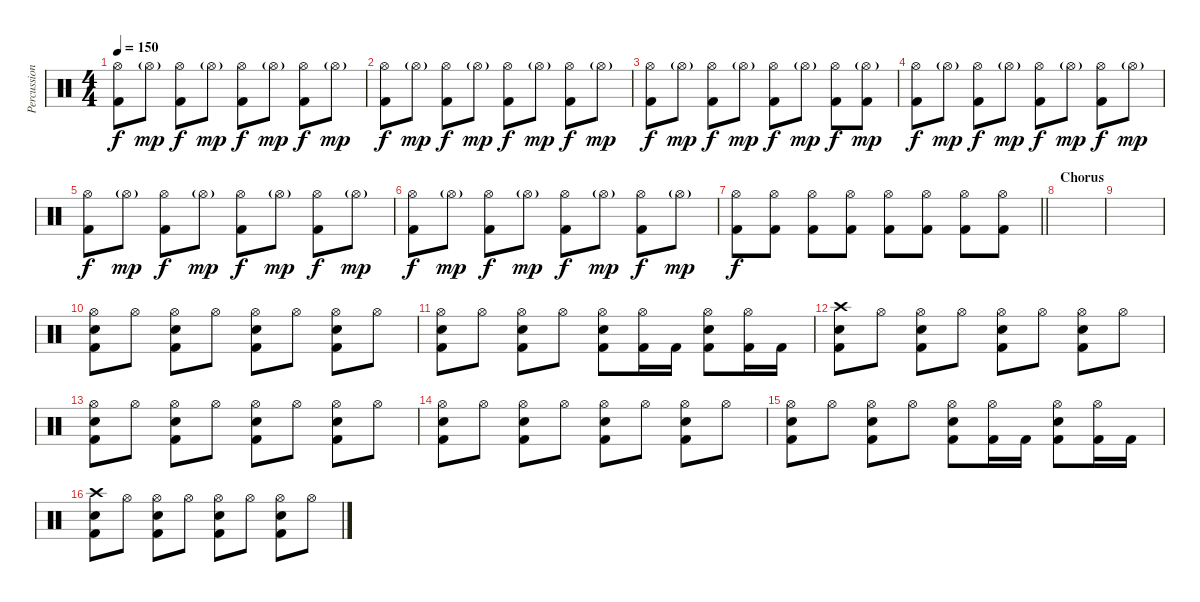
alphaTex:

\track ("Percussion" "Percussion") {instrument percussion}
\staff {score}
\articulation defaults
\ts (4 4)
\tempo 150
\clef neutral
\ks c
("Hi-Hat (open)" "Kick (hit) 2").8{dy f} "Hi-Hat (open)"{g}.8{dy mp} ("Hi-Hat (open)" "Kick (hit) 2").8{dy f} "Hi-Hat (open)"{g}.8{dy mp} ("Hi-Hat (open)" "Kick (hit) 2").8{dy f} "Hi-Hat (open)"{g}.8{dy mp} ("Hi-Hat (open)" "Kick (hit) 2").8{dy f} "Hi-Hat (open)"{g}.8{dy mp} |
("Hi-Hat (open)" "Kick (hit) 2").8{dy f} "Hi-Hat (open)"{g}.8{dy mp} ("Hi-Hat (open)" "Kick (hit) 2").8{dy f} "Hi-Hat (open)"{g}.8{dy mp} ("Hi-Hat (open)" "Kick (hit) 2").8{dy f} "Hi-Hat (open)"{g}.8{dy mp} ("Hi-Hat (open)" "Kick (hit) 2").8{dy f} "Hi-Hat (open)"{g}.8{dy mp} |
("Hi-Hat (open)" "Kick (hit) 2").8{dy f} "Hi-Hat (open)"{g}.8{dy mp} ("Hi-Hat (open)" "Kick (hit) 2").8{dy f} "Hi-Hat (open)"{g}.8{dy mp} ("Hi-Hat (open)" "Kick (hit) 2").8{dy f} "Hi-Hat (open)"{g}.8{dy mp} ("Hi-Hat (open)" "Kick (hit) 2").8{dy f} ("Hi-Hat (open)"{g} "Kick (hit) 2").8{dy mp} |
("Hi-Hat (open)" "Kick (hit) 2").8{dy f} "Hi-Hat (open)"{g}.8{dy mp} ("Hi-Hat (open)" "Kick (hit) 2").8{dy f} "Hi-Hat (open)"{g}.8{dy mp} ("Hi-Hat (open)" "Kick (hit) 2").8{dy f} "Hi-Hat (open)"{g}.8{dy mp} ("Hi-Hat (open)" "Kick (hit) 2").8{dy f} "Hi-Hat (open)"{g}.8{dy mp} |
("Hi-Hat (open)" "Kick (hit) 2").8{dy f} "Hi-Hat (open)"{g}.8{dy mp} ("Hi-Hat (open)" "Kick (hit) 2").8{dy f} "Hi-Hat (open)"{g}.8{dy mp} ("Hi-Hat (open)" "Kick (hit) 2").8{dy f} "Hi-Hat (open)"{g}.8{dy mp} ("Hi-Hat (open)" "Kick (hit) 2").8{dy f} "Hi-Hat (open)"{g}.8{dy mp} |
("Hi-Hat (open)" "Kick (hit) 2").8{dy f} "Hi-Hat (open)"{g}.8{dy mp} ("Hi-Hat (open)" "Kick (hit) 2").8{dy f} "Hi-Hat (open)"{g}.8{dy mp} ("Hi-Hat (open)" "Kick (hit) 2").8{dy f} "Hi-Hat (open)"{g}.8{dy mp} ("Hi-Hat (open)" "Kick (hit) 2").8{dy f} "Hi-Hat (open)"{g}.8{dy mp} |
\barLineRight lightlight
("Hi-Hat (open)" "Kick (hit) 2").8{dy f} ("Hi-Hat (open)" "Kick (hit) 2").8 ("Hi-Hat (open)" "Kick (hit) 2").8 ("Hi-Hat (open)" "Kick (hit) 2").8 ("Hi-Hat (open)" "Kick (hit) 2").8 ("Hi-Hat (open)" "Kick (hit) 2").8 ("Hi-Hat (open)" "Kick (hit) 2").8 ("Hi-Hat (open)" "Kick (hit) 2").8 |
\section ("" "Chorus")
|
|
("Hi-Hat (open)" "Snare (hit) 2" "Kick (hit) 2").8 "Hi-Hat (open)".8 ("Hi-Hat (open)" "Snare (hit) 2" "Kick (hit) 2").8 "Hi-Hat (open)".8 ("Hi-Hat (open)" "Snare (hit) 2" "Kick (hit) 2").8 "Hi-Hat (open)".8 ("Hi-Hat (open)" "Snare (hit) 2" "Kick (hit) 2").8 "Hi-Hat (open)".8 |
("Hi-Hat (open)" "Snare (hit) 2" "Kick (hit) 2").8 "Hi-Hat (open)".8 ("Hi-Hat (open)" "Snare (hit) 2" "Kick (hit) 2").8 "Hi-Hat (open)".8 ("Hi-Hat (open)" "Snare (hit) 2" "Kick (hit) 2").8 ("Hi-Hat (open)" "Kick (hit) 2").16 "Kick (hit) 2".16 ("Hi-Hat (open)" "Snare (hit) 2" "Kick (hit) 2").8 ("Hi-Hat (open)" "Kick (hit) 2").16 "Kick (hit) 2".16 |
("Crash high (hit)" "Snare (hit) 2" "Kick (hit) 2").8 "Hi-Hat (open)".8 ("Hi-Hat (open)" "Snare (hit) 2" "Kick (hit) 2").8 "Hi-Hat (open)".8 ("Hi-Hat (open)" "Snare (hit) 2" "Kick (hit) 2").8 "Hi-Hat (open)".8 ("Hi-Hat (open)" "Snare (hit) 2" "Kick (hit) 2").8 "Hi-Hat (open)".8 |
("Hi-Hat (open)" "Snare (hit) 2" "Kick (hit) 2").8 "Hi-Hat (open)".8 ("Hi-Hat (open)" "Snare (hit) 2" "Kick (hit) 2").8 "Hi-Hat (open)".8 ("Hi-Hat (open)" "Snare (hit) 2" "Kick (hit) 2").8 "Hi-Hat (open)".8 ("Hi-Hat (open)" "Snare (hit) 2" "Kick (hit) 2").8 "Hi-Hat (open)".8 |
("Hi-Hat (open)" "Snare (hit) 2" "Kick (hit) 2").8 "Hi-Hat (open)".8 ("Hi-Hat (open)" "Snare (hit) 2" "Kick (hit) 2").8 "Hi-Hat (open)".8 ("Hi-Hat (open)" "Snare (hit) 2" "Kick (hit) 2").8 "Hi-Hat (open)".8 ("Hi-Hat (open)" "Snare (hit) 2" "Kick (hit) 2").8 "Hi-Hat (open)".8 |
("Hi-Hat (open)" "Snare (hit) 2" "Kick (hit) 2").8 "Hi-Hat (open)".8 ("Hi-Hat (open)" "Snare (hit) 2" "Kick (hit) 2").8 "Hi-Hat (open)".8 ("Hi-Hat (open)" "Snare (hit) 2" "Kick (hit) 2").8 ("Hi-Hat (open)" "Kick (hit) 2").16 "Kick (hit) 2".16 ("Hi-Hat (open)" "Snare (hit) 2" "Kick (hit) 2").8 ("Hi-Hat (open)" "Kick (hit) 2").16 "Kick (hit) 2".16 |
("Crash high (hit)" "Snare (hit) 2" "Kick (hit) 2").8 "Hi-Hat (open)".8 ("Hi-Hat (open)" "Snare (hit) 2" "Kick (hit) 2").8 "Hi-Hat (open)".8 ("Hi-Hat (open)" "Snare (hit) 2" "Kick (hit) 2").8 "Hi-Hat (open)".8 ("Hi-Hat (open)" "Snare (hit) 2" "Kick (hit) 2").8 "Hi-Hat (open)".8
